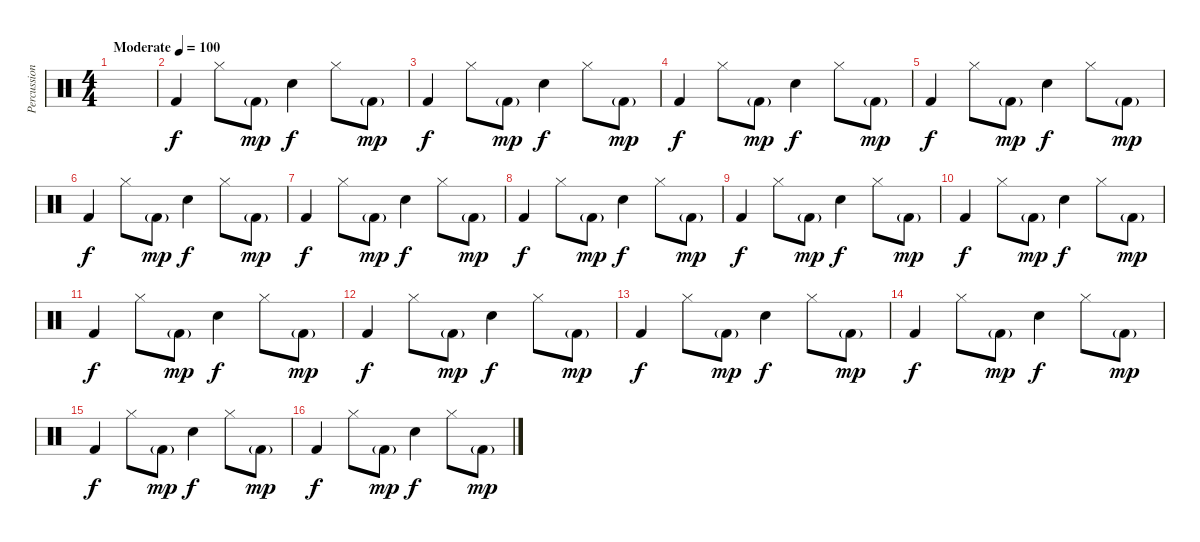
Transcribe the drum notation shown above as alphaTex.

\track ("Percussion" "Percussion") {instrument percussion}
\staff {score}
\articulation defaults
\ts (4 4)
\tempo (100 "Moderate")
\clef neutral
\ks c
|
"Kick (hit) 2".4 "Hi-Hat (closed)".8 "Kick (hit) 2"{g}.8{dy mp} "Snare (hit) 2".4{dy f} "Hi-Hat (closed)".8 "Kick (hit) 2"{g}.8{dy mp} |
"Kick (hit) 2".4{dy f} "Hi-Hat (closed)".8 "Kick (hit) 2"{g}.8{dy mp} "Snare (hit) 2".4{dy f} "Hi-Hat (closed)".8 "Kick (hit) 2"{g}.8{dy mp} |
"Kick (hit) 2".4{dy f} "Hi-Hat (closed)".8 "Kick (hit) 2"{g}.8{dy mp} "Snare (hit) 2".4{dy f} "Hi-Hat (closed)".8 "Kick (hit) 2"{g}.8{dy mp} |
"Kick (hit) 2".4{dy f} "Hi-Hat (closed)".8 "Kick (hit) 2"{g}.8{dy mp} "Snare (hit) 2".4{dy f} "Hi-Hat (closed)".8 "Kick (hit) 2"{g}.8{dy mp} |
"Kick (hit) 2".4{dy f} "Hi-Hat (closed)".8 "Kick (hit) 2"{g}.8{dy mp} "Snare (hit) 2".4{dy f} "Hi-Hat (closed)".8 "Kick (hit) 2"{g}.8{dy mp} |
"Kick (hit) 2".4{dy f} "Hi-Hat (closed)".8 "Kick (hit) 2"{g}.8{dy mp} "Snare (hit) 2".4{dy f} "Hi-Hat (closed)".8 "Kick (hit) 2"{g}.8{dy mp} |
"Kick (hit) 2".4{dy f} "Hi-Hat (closed)".8 "Kick (hit) 2"{g}.8{dy mp} "Snare (hit) 2".4{dy f} "Hi-Hat (closed)".8 "Kick (hit) 2"{g}.8{dy mp} |
"Kick (hit) 2".4{dy f} "Hi-Hat (closed)".8 "Kick (hit) 2"{g}.8{dy mp} "Snare (hit) 2".4{dy f} "Hi-Hat (closed)".8 "Kick (hit) 2"{g}.8{dy mp} |
"Kick (hit) 2".4{dy f} "Hi-Hat (closed)".8 "Kick (hit) 2"{g}.8{dy mp} "Snare (hit) 2".4{dy f} "Hi-Hat (closed)".8 "Kick (hit) 2"{g}.8{dy mp} |
"Kick (hit) 2".4{dy f} "Hi-Hat (closed)".8 "Kick (hit) 2"{g}.8{dy mp} "Snare (hit) 2".4{dy f} "Hi-Hat (closed)".8 "Kick (hit) 2"{g}.8{dy mp} |
"Kick (hit) 2".4{dy f} "Hi-Hat (closed)".8 "Kick (hit) 2"{g}.8{dy mp} "Snare (hit) 2".4{dy f} "Hi-Hat (closed)".8 "Kick (hit) 2"{g}.8{dy mp} |
"Kick (hit) 2".4{dy f} "Hi-Hat (closed)".8 "Kick (hit) 2"{g}.8{dy mp} "Snare (hit) 2".4{dy f} "Hi-Hat (closed)".8 "Kick (hit) 2"{g}.8{dy mp} |
"Kick (hit) 2".4{dy f} "Hi-Hat (closed)".8 "Kick (hit) 2"{g}.8{dy mp} "Snare (hit) 2".4{dy f} "Hi-Hat (closed)".8 "Kick (hit) 2"{g}.8{dy mp} |
"Kick (hit) 2".4{dy f} "Hi-Hat (closed)".8 "Kick (hit) 2"{g}.8{dy mp} "Snare (hit) 2".4{dy f} "Hi-Hat (closed)".8 "Kick (hit) 2"{g}.8{dy mp} |
"Kick (hit) 2".4{dy f} "Hi-Hat (closed)".8 "Kick (hit) 2"{g}.8{dy mp} "Snare (hit) 2".4{dy f} "Hi-Hat (closed)".8 "Kick (hit) 2"{g}.8{dy mp}
